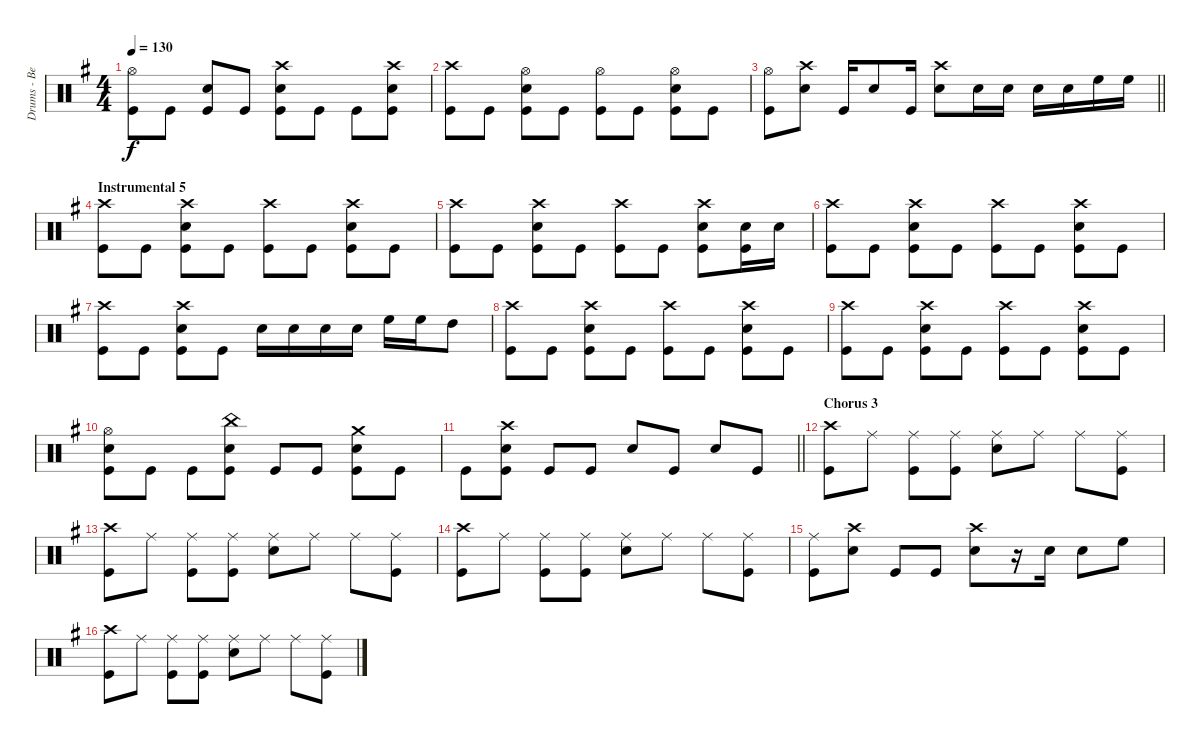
\track ("Drums - Ben Johnston" "Drums - Be") {instrument percussion}
\staff {score}
\articulation defaults
\ts (4 4)
\tempo 130
\clef neutral
\ks g
("Hi-Hat (open)" "Kick (hit)").8{dy f} "Kick (hit)".8 ("Snare (hit) 2" "Kick (hit)").8 "Kick (hit)".8 ("Crash high (hit)" "Snare (hit) 2" "Kick (hit)").8 "Kick (hit)".8 "Kick (hit)".8 ("Crash high (hit)" "Snare (hit) 2" "Kick (hit)").8 |
("Crash high (hit)" "Kick (hit)").8 "Kick (hit)".8 ("Hi-Hat (open)" "Snare (hit) 2" "Kick (hit)").8 "Kick (hit)".8 ("Hi-Hat (open)" "Kick (hit)").8 "Kick (hit)".8 ("Hi-Hat (open)" "Snare (hit) 2" "Kick (hit)").8 "Kick (hit)".8 |
\barLineRight lightlight
("Hi-Hat (open)" "Kick (hit)").8 ("Crash high (hit)" "Snare (hit) 2").8 "Kick (hit)".16 "Snare (hit) 2".8 "Kick (hit)".16 ("Crash high (hit)" "Snare (hit) 2").8 "Snare (hit) 2".16 "Snare (hit) 2".16 "Snare (hit) 2".16 "Snare (hit) 2".16 "High Floor Tom (hit)".16 "High Floor Tom (hit)".16 |
\section ("" "Instrumental 5")
("Crash high (hit)" "Kick (hit)").8 "Kick (hit)".8 ("Crash high (hit)" "Snare (hit) 2" "Kick (hit)").8 "Kick (hit)".8 ("Crash high (hit)" "Kick (hit)").8 "Kick (hit)".8 ("Crash high (hit)" "Snare (hit) 2" "Kick (hit)").8 "Kick (hit)".8 |
("Crash high (hit)" "Kick (hit)").8 "Kick (hit)".8 ("Crash high (hit)" "Snare (hit) 2" "Kick (hit)").8 "Kick (hit)".8 ("Crash high (hit)" "Kick (hit)").8 "Kick (hit)".8 ("Crash high (hit)" "Snare (hit) 2" "Kick (hit)").8 ("Snare (hit) 2" "Kick (hit)").16 "Snare (hit) 2".16 |
("Crash high (hit)" "Kick (hit)").8 "Kick (hit)".8 ("Crash high (hit)" "Snare (hit) 2" "Kick (hit)").8 "Kick (hit)".8 ("Crash high (hit)" "Kick (hit)").8 "Kick (hit)".8 ("Crash high (hit)" "Snare (hit) 2" "Kick (hit)").8 "Kick (hit)".8 |
("Crash high (hit)" "Kick (hit)").8 "Kick (hit)".8 ("Crash high (hit)" "Snare (hit) 2" "Kick (hit)").8 "Kick (hit)".8 "Snare (hit) 2".16 "Snare (hit) 2".16 "Snare (hit) 2".16 "Snare (hit) 2".16 "High Floor Tom (hit)".16 "High Floor Tom (hit)".16 "High Tom (hit)".8 |
("Crash high (hit)" "Kick (hit)").8 "Kick (hit)".8 ("Crash high (hit)" "Snare (hit) 2" "Kick (hit)").8 "Kick (hit)".8 ("Crash high (hit)" "Kick (hit)").8 "Kick (hit)".8 ("Crash high (hit)" "Snare (hit) 2" "Kick (hit)").8 "Kick (hit)".8 |
("Crash high (hit)" "Kick (hit)").8 "Kick (hit)".8 ("Crash high (hit)" "Snare (hit) 2" "Kick (hit)").8 "Kick (hit)".8 ("Crash high (hit)" "Kick (hit)").8 "Kick (hit)".8 ("Crash high (hit)" "Snare (hit) 2" "Kick (hit)").8 "Kick (hit)".8 |
("Hi-Hat (open)" "Snare (hit) 2" "Kick (hit)").8 "Kick (hit)".8 "Kick (hit)".8 ("China (hit)" "Snare (hit) 2" "Kick (hit)").8 "Kick (hit)".8 "Kick (hit)".8 ("Crash medium (hit)" "Snare (hit) 2" "Kick (hit)").8 "Kick (hit)".8 |
\barLineRight lightlight "Kick (hit)".8
("Crash high (hit)" "Snare (hit) 2" "Kick (hit)").8 "Kick (hit)".8 "Kick (hit)".8 "Snare (hit) 2".8 "Kick (hit)".8 "Snare (hit) 2".8 "Kick (hit)".8 |
\section ("" "Chorus 3")
("Crash high (hit)" "Kick (hit)").8 "Ride (middle)".8 ("Ride (middle)" "Kick (hit)").8 ("Ride (middle)" "Kick (hit)").8 ("Ride (middle)" "Snare (hit) 2").8 "Ride (middle)".8 "Ride (middle)".8 ("Ride (middle)" "Kick (hit)").8 |
("Crash high (hit)" "Kick (hit)").8 "Ride (middle)".8 ("Ride (middle)" "Kick (hit)").8 ("Ride (middle)" "Kick (hit)").8 ("Ride (middle)" "Snare (hit) 2").8 "Ride (middle)".8 "Ride (middle)".8 ("Ride (middle)" "Kick (hit)").8 |
("Crash high (hit)" "Kick (hit)").8 "Ride (middle)".8 ("Ride (middle)" "Kick (hit)").8 ("Ride (middle)" "Kick (hit)").8 ("Ride (middle)" "Snare (hit) 2").8 "Ride (middle)".8 "Ride (middle)".8 ("Ride (middle)" "Kick (hit)").8 |
("Ride (middle)" "Kick (hit)").8 ("Crash high (hit)" "Snare (hit) 2").8 "Kick (hit)".8 "Kick (hit)".8 ("Crash high (hit)" "Snare (hit) 2").8 r.16 "Snare (hit) 2".16 "Snare (hit) 2".8 "High Floor Tom (hit)".8 |
("Crash high (hit)" "Kick (hit)").8 "Ride (middle)".8 ("Ride (middle)" "Kick (hit)").8 ("Ride (middle)" "Kick (hit)").8 ("Ride (middle)" "Snare (hit) 2").8 "Ride (middle)".8 "Ride (middle)".8 ("Ride (middle)" "Kick (hit)").8
